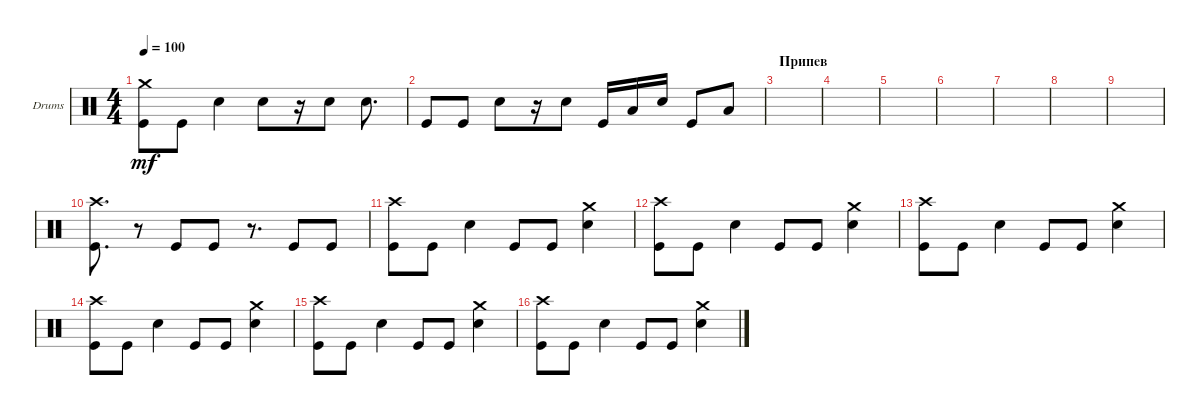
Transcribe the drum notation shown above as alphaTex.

\defaultSystemsLayout 4
\bracketExtendMode groupsimilarinstruments
\firstSystemTrackNameOrientation horizontal
\otherSystemsTrackNameOrientation horizontal
\track ("Е. Кулаков" "Drums") {instrument percussion}
\staff {score}
\articulation defaults
\ts (4 4)
\tempo 100
\clef neutral
\ks c
("Kick (hit)" "Crash medium (hit)").8{dy mf} "Kick (hit)".8 "Snare (hit) 2".4 "Snare (hit) 2".8 r.16 "Snare (hit) 2".8 "Snare (hit) 2".8{d} |
"Kick (hit)".8 "Kick (hit)".8 "Snare (hit) 2".8 r.16 "Snare (hit) 2".8 "Kick (hit)".16 "Low Tom (hit)".16 "Snare (hit) 2".16 "Kick (hit)".8 "Low Tom (hit)".8 |
\section ("" "Припев")
|
|
|
|
|
|
|
("Kick (hit)" "Crash high (hit)").8{d} r.8 "Kick (hit)".8 "Kick (hit)".8 r.8{d} "Kick (hit)".8 "Kick (hit)".8 |
("Kick (hit)" "Crash high (hit)").8 "Kick (hit)".8 "Snare (hit) 2".4 "Kick (hit)".8 "Kick (hit)".8 ("Snare (hit) 2" "Crash medium (hit)").4 |
("Kick (hit)" "Crash high (hit)").8 "Kick (hit)".8 "Snare (hit) 2".4 "Kick (hit)".8 "Kick (hit)".8 ("Snare (hit) 2" "Crash medium (hit)").4 |
("Kick (hit)" "Crash high (hit)").8 "Kick (hit)".8 "Snare (hit) 2".4 "Kick (hit)".8 "Kick (hit)".8 ("Snare (hit) 2" "Crash medium (hit)").4 |
("Kick (hit)" "Crash high (hit)").8 "Kick (hit)".8 "Snare (hit) 2".4 "Kick (hit)".8 "Kick (hit)".8 ("Snare (hit) 2" "Crash medium (hit)").4 |
("Kick (hit)" "Crash high (hit)").8 "Kick (hit)".8 "Snare (hit) 2".4 "Kick (hit)".8 "Kick (hit)".8 ("Snare (hit) 2" "Crash medium (hit)").4 |
("Kick (hit)" "Crash high (hit)").8 "Kick (hit)".8 "Snare (hit) 2".4 "Kick (hit)".8 "Kick (hit)".8 ("Snare (hit) 2" "Crash medium (hit)").4
